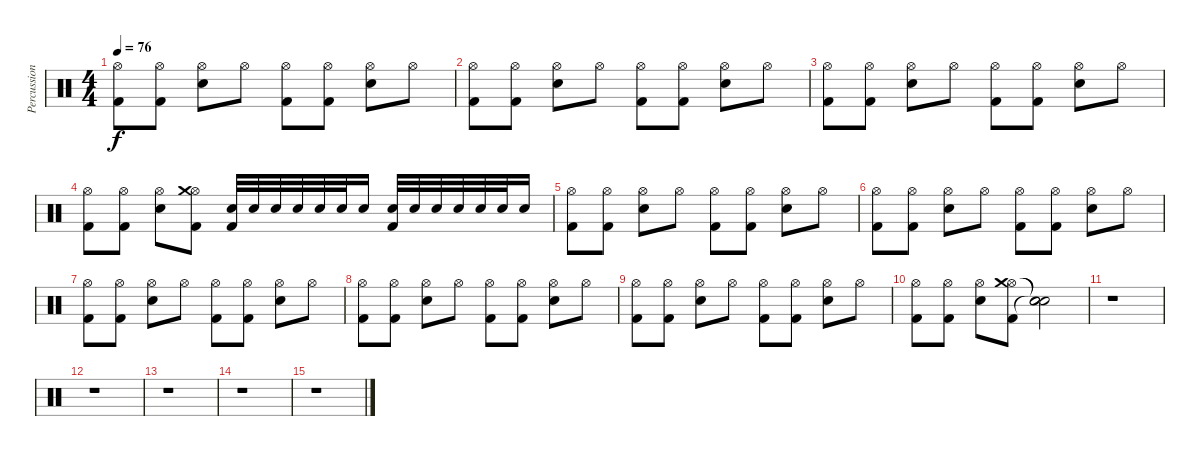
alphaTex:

\track ("Percussion" "Percussion") {instrument percussion}
\staff {score}
\articulation defaults
\ts (4 4)
\tempo 76
\clef neutral
\ks c
("Hi-Hat (open)" "Kick (hit) 2").8{dy f} ("Hi-Hat (open)" "Kick (hit) 2").8 ("Electric Snare (hit)" "Hi-Hat (open)").8 "Hi-Hat (open)".8 ("Hi-Hat (open)" "Kick (hit) 2").8 ("Hi-Hat (open)" "Kick (hit) 2").8 ("Electric Snare (hit)" "Hi-Hat (open)").8 "Hi-Hat (open)".8 |
("Hi-Hat (open)" "Kick (hit) 2").8 ("Hi-Hat (open)" "Kick (hit) 2").8 ("Electric Snare (hit)" "Hi-Hat (open)").8 "Hi-Hat (open)".8 ("Hi-Hat (open)" "Kick (hit) 2").8 ("Hi-Hat (open)" "Kick (hit) 2").8 ("Electric Snare (hit)" "Hi-Hat (open)").8 "Hi-Hat (open)".8 |
("Hi-Hat (open)" "Kick (hit) 2").8 ("Hi-Hat (open)" "Kick (hit) 2").8 ("Electric Snare (hit)" "Hi-Hat (open)").8 "Hi-Hat (open)".8 ("Hi-Hat (open)" "Kick (hit) 2").8 ("Hi-Hat (open)" "Kick (hit) 2").8 ("Electric Snare (hit)" "Hi-Hat (open)").8 "Hi-Hat (open)".8 |
("Hi-Hat (open)" "Kick (hit) 2").8 ("Hi-Hat (open)" "Kick (hit) 2").8 ("Electric Snare (hit)" "Hi-Hat (open)").8 ("Hi-Hat (open)" "Kick (hit) 2" "Crash medium (hit)").8 ("Electric Snare (hit)" "Kick (hit) 2").32 "Electric Snare (hit)".32 "Electric Snare (hit)".32 "Electric Snare (hit)".32 "Electric Snare (hit)".32 "Electric Snare (hit)".32 "Electric Snare (hit)".16 ("Electric Snare (hit)" "Kick (hit) 2").32 "Electric Snare (hit)".32 "Electric Snare (hit)".32 "Electric Snare (hit)".32 "Electric Snare (hit)".32 "Electric Snare (hit)".32 "Electric Snare (hit)".16 |
("Hi-Hat (open)" "Kick (hit) 2").8 ("Hi-Hat (open)" "Kick (hit) 2").8 ("Electric Snare (hit)" "Hi-Hat (open)").8 "Hi-Hat (open)".8 ("Hi-Hat (open)" "Kick (hit) 2").8 ("Hi-Hat (open)" "Kick (hit) 2").8 ("Electric Snare (hit)" "Hi-Hat (open)").8 "Hi-Hat (open)".8 |
("Hi-Hat (open)" "Kick (hit) 2").8 ("Hi-Hat (open)" "Kick (hit) 2").8 ("Electric Snare (hit)" "Hi-Hat (open)").8 "Hi-Hat (open)".8 ("Hi-Hat (open)" "Kick (hit) 2").8 ("Hi-Hat (open)" "Kick (hit) 2").8 ("Electric Snare (hit)" "Hi-Hat (open)").8 "Hi-Hat (open)".8 |
("Hi-Hat (open)" "Kick (hit) 2").8 ("Hi-Hat (open)" "Kick (hit) 2").8 ("Electric Snare (hit)" "Hi-Hat (open)").8 "Hi-Hat (open)".8 ("Hi-Hat (open)" "Kick (hit) 2").8 ("Hi-Hat (open)" "Kick (hit) 2").8 ("Electric Snare (hit)" "Hi-Hat (open)").8 "Hi-Hat (open)".8 |
("Hi-Hat (open)" "Kick (hit) 2").8 ("Hi-Hat (open)" "Kick (hit) 2").8 ("Electric Snare (hit)" "Hi-Hat (open)").8 "Hi-Hat (open)".8 ("Hi-Hat (open)" "Kick (hit) 2").8 ("Hi-Hat (open)" "Kick (hit) 2").8 ("Electric Snare (hit)" "Hi-Hat (open)").8 "Hi-Hat (open)".8 |
("Hi-Hat (open)" "Kick (hit) 2").8 ("Hi-Hat (open)" "Kick (hit) 2").8 ("Electric Snare (hit)" "Hi-Hat (open)").8 "Hi-Hat (open)".8 ("Hi-Hat (open)" "Kick (hit) 2").8 ("Hi-Hat (open)" "Kick (hit) 2").8 ("Electric Snare (hit)" "Hi-Hat (open)").8 "Hi-Hat (open)".8 |
("Hi-Hat (open)" "Kick (hit) 2").8 ("Hi-Hat (open)" "Kick (hit) 2").8 ("Electric Snare (hit)" "Hi-Hat (open)").8 ("Hi-Hat (open)" "Kick (hit) 2" "Crash medium (hit)").8 ("Snare (hit)"{t} "Snare (hit)"{t} "Snare (hit)"{t}).2 |
r.1 |
r.1 |
r.1 |
r.1 |
r.1
